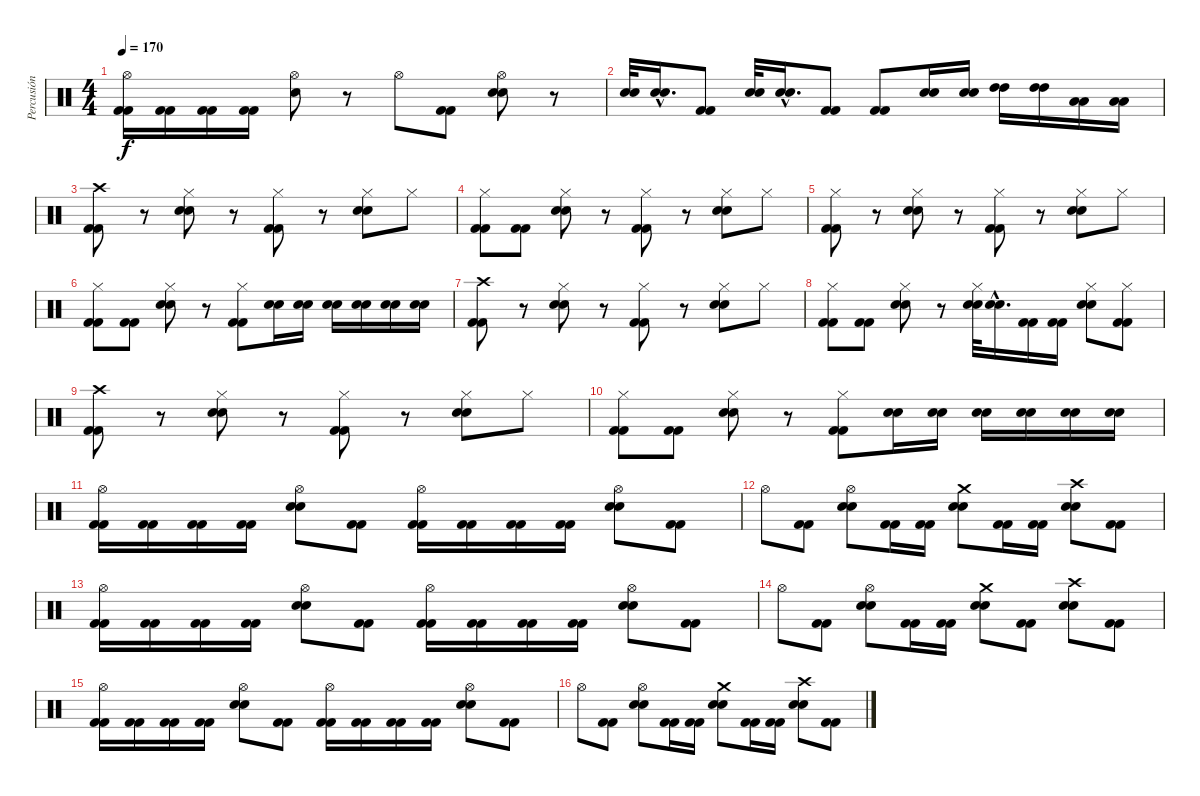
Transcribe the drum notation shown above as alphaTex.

\track ("Percusión" "Percusión") {instrument percussion}
\staff {score}
\articulation defaults
\ts (4 4)
\tempo 170
\clef neutral
\ks c
("Hi-Hat (open)" "Kick (hit) 2" "Kick (hit) 2").16{dy f} ("Kick (hit) 2" "Kick (hit) 2").16 ("Kick (hit) 2" "Kick (hit) 2").16 ("Kick (hit) 2" "Kick (hit) 2").16 ("Hi-Hat (open)" "Electric Snare (hit)").8 r.8 "Hi-Hat (open)".8 ("Kick (hit) 2" "Kick (hit) 2").8 ("Hi-Hat (open)" "Electric Snare (hit)" "Electric Snare (hit)").8 r.8 |
("Electric Snare (hit)" "Electric Snare (hit)").32 ("Electric Snare (hit)"{hac} "Electric Snare (hit)"{hac}).16{d} ("Kick (hit) 2" "Kick (hit) 2").8 ("Electric Snare (hit)" "Electric Snare (hit)").32 ("Electric Snare (hit)"{hac} "Electric Snare (hit)"{hac}).16{d} ("Kick (hit) 2" "Kick (hit) 2").8 ("Kick (hit) 2" "Kick (hit) 2").8 ("Electric Snare (hit)" "Electric Snare (hit)").16 ("Electric Snare (hit)" "Electric Snare (hit)").16 ("High Tom (hit)" "High Tom (hit)").16 ("High Tom (hit)" "High Tom (hit)").16 ("Low Tom (hit)" "Low Tom (hit)").16 ("Low Tom (hit)" "Low Tom (hit)").16 |
("Crash high (hit)" "Kick (hit) 2" "Kick (hit) 2").8 r.8 ("Hi-Hat (closed)" "Electric Snare (hit)" "Electric Snare (hit)").8 r.8 ("Hi-Hat (closed)" "Kick (hit) 2" "Kick (hit) 2").8 r.8 ("Hi-Hat (closed)" "Electric Snare (hit)" "Electric Snare (hit)").8 "Hi-Hat (closed)".8 |
("Hi-Hat (closed)" "Kick (hit) 2" "Kick (hit) 2").8 ("Kick (hit) 2" "Kick (hit) 2").8 ("Hi-Hat (closed)" "Electric Snare (hit)" "Electric Snare (hit)").8 r.8 ("Hi-Hat (closed)" "Kick (hit) 2" "Kick (hit) 2").8 r.8 ("Hi-Hat (closed)" "Electric Snare (hit)" "Electric Snare (hit)").8 "Hi-Hat (closed)".8 |
("Hi-Hat (closed)" "Kick (hit) 2" "Kick (hit) 2").8 r.8 ("Hi-Hat (closed)" "Electric Snare (hit)" "Electric Snare (hit)").8 r.8 ("Hi-Hat (closed)" "Kick (hit) 2" "Kick (hit) 2").8 r.8 ("Hi-Hat (closed)" "Electric Snare (hit)" "Electric Snare (hit)").8 "Hi-Hat (closed)".8 |
("Hi-Hat (closed)" "Kick (hit) 2" "Kick (hit) 2").8 ("Kick (hit) 2" "Kick (hit) 2").8 ("Hi-Hat (closed)" "Electric Snare (hit)" "Electric Snare (hit)").8 r.8 ("Hi-Hat (closed)" "Kick (hit) 2" "Kick (hit) 2").8 ("Electric Snare (hit)" "Electric Snare (hit)").16 ("Electric Snare (hit)" "Electric Snare (hit)").16 ("Electric Snare (hit)" "Electric Snare (hit)").16 ("Electric Snare (hit)" "Electric Snare (hit)").16 ("Electric Snare (hit)" "Electric Snare (hit)").16 ("Electric Snare (hit)" "Electric Snare (hit)").16 |
("Crash high (hit)" "Kick (hit) 2" "Kick (hit) 2").8 r.8 ("Hi-Hat (closed)" "Electric Snare (hit)" "Electric Snare (hit)").8 r.8 ("Hi-Hat (closed)" "Kick (hit) 2" "Kick (hit) 2").8 r.8 ("Hi-Hat (closed)" "Electric Snare (hit)" "Electric Snare (hit)").8 "Hi-Hat (closed)".8 |
("Hi-Hat (closed)" "Kick (hit) 2" "Kick (hit) 2").8 ("Kick (hit) 2" "Kick (hit) 2").8 ("Hi-Hat (closed)" "Electric Snare (hit)" "Electric Snare (hit)").8 r.8 ("Hi-Hat (closed)" "Electric Snare (hit)" "Electric Snare (hit)").32 ("Electric Snare (hit)"{hac} "Electric Snare (hit)"{hac}).16{d} ("Kick (hit) 2" "Kick (hit) 2").16 ("Kick (hit) 2" "Kick (hit) 2").16 ("Hi-Hat (closed)" "Electric Snare (hit)" "Electric Snare (hit)").8 ("Hi-Hat (closed)" "Kick (hit) 2" "Kick (hit) 2").8 |
("Crash high (hit)" "Kick (hit) 2" "Kick (hit) 2").8 r.8 ("Hi-Hat (closed)" "Electric Snare (hit)" "Electric Snare (hit)").8 r.8 ("Hi-Hat (closed)" "Kick (hit) 2" "Kick (hit) 2").8 r.8 ("Hi-Hat (closed)" "Electric Snare (hit)" "Electric Snare (hit)").8 "Hi-Hat (closed)".8 |
("Hi-Hat (closed)" "Kick (hit) 2" "Kick (hit) 2").8 ("Kick (hit) 2" "Kick (hit) 2").8 ("Hi-Hat (closed)" "Electric Snare (hit)" "Electric Snare (hit)").8 r.8 ("Hi-Hat (closed)" "Kick (hit) 2" "Kick (hit) 2").8 ("Electric Snare (hit)" "Electric Snare (hit)").16 ("Electric Snare (hit)" "Electric Snare (hit)").16 ("Electric Snare (hit)" "Electric Snare (hit)").16 ("Electric Snare (hit)" "Electric Snare (hit)").16 ("Electric Snare (hit)" "Electric Snare (hit)").16 ("Electric Snare (hit)" "Electric Snare (hit)").16 |
("Hi-Hat (open)" "Kick (hit) 2" "Kick (hit) 2").16 ("Kick (hit) 2" "Kick (hit) 2").16 ("Kick (hit) 2" "Kick (hit) 2").16 ("Kick (hit) 2" "Kick (hit) 2").16 ("Hi-Hat (open)" "Electric Snare (hit)" "Electric Snare (hit)").8 ("Kick (hit) 2" "Kick (hit) 2").8 ("Hi-Hat (open)" "Kick (hit) 2" "Kick (hit) 2").16 ("Kick (hit) 2" "Kick (hit) 2").16 ("Kick (hit) 2" "Kick (hit) 2").16 ("Kick (hit) 2" "Kick (hit) 2").16 ("Hi-Hat (open)" "Electric Snare (hit)" "Electric Snare (hit)").8 ("Kick (hit) 2" "Kick (hit) 2").8 |
"Hi-Hat (open)".8 ("Kick (hit) 2" "Kick (hit) 2").8 ("Hi-Hat (open)" "Electric Snare (hit)" "Electric Snare (hit)").8 ("Kick (hit) 2" "Kick (hit) 2").16 ("Kick (hit) 2" "Kick (hit) 2").16 ("Crash medium (hit)" "Electric Snare (hit)" "Electric Snare (hit)").8 ("Kick (hit) 2" "Kick (hit) 2").16 ("Kick (hit) 2" "Kick (hit) 2").16 ("Crash high (hit)" "Electric Snare (hit)" "Electric Snare (hit)").8 ("Kick (hit) 2" "Kick (hit) 2").8 |
("Hi-Hat (open)" "Kick (hit) 2" "Kick (hit) 2").16 ("Kick (hit) 2" "Kick (hit) 2").16 ("Kick (hit) 2" "Kick (hit) 2").16 ("Kick (hit) 2" "Kick (hit) 2").16 ("Hi-Hat (open)" "Electric Snare (hit)" "Electric Snare (hit)").8 ("Kick (hit) 2" "Kick (hit) 2").8 ("Hi-Hat (open)" "Kick (hit) 2" "Kick (hit) 2").16 ("Kick (hit) 2" "Kick (hit) 2").16 ("Kick (hit) 2" "Kick (hit) 2").16 ("Kick (hit) 2" "Kick (hit) 2").16 ("Hi-Hat (open)" "Electric Snare (hit)" "Electric Snare (hit)").8 ("Kick (hit) 2" "Kick (hit) 2").8 |
"Hi-Hat (open)".8 ("Kick (hit) 2" "Kick (hit) 2").8 ("Hi-Hat (open)" "Electric Snare (hit)" "Electric Snare (hit)").8 ("Kick (hit) 2" "Kick (hit) 2").16 ("Kick (hit) 2" "Kick (hit) 2").16 ("Crash medium (hit)" "Electric Snare (hit)" "Electric Snare (hit)").8 ("Kick (hit) 2" "Kick (hit) 2").8 ("Crash high (hit)" "Electric Snare (hit)" "Electric Snare (hit)").8 ("Kick (hit) 2" "Kick (hit) 2").8 |
("Hi-Hat (open)" "Kick (hit) 2" "Kick (hit) 2").16 ("Kick (hit) 2" "Kick (hit) 2").16 ("Kick (hit) 2" "Kick (hit) 2").16 ("Kick (hit) 2" "Kick (hit) 2").16 ("Hi-Hat (open)" "Electric Snare (hit)" "Electric Snare (hit)").8 ("Kick (hit) 2" "Kick (hit) 2").8 ("Hi-Hat (open)" "Kick (hit) 2" "Kick (hit) 2").16 ("Kick (hit) 2" "Kick (hit) 2").16 ("Kick (hit) 2" "Kick (hit) 2").16 ("Kick (hit) 2" "Kick (hit) 2").16 ("Hi-Hat (open)" "Electric Snare (hit)" "Electric Snare (hit)").8 ("Kick (hit) 2" "Kick (hit) 2").8 |
"Hi-Hat (open)".8 ("Kick (hit) 2" "Kick (hit) 2").8 ("Hi-Hat (open)" "Electric Snare (hit)" "Electric Snare (hit)").8 ("Kick (hit) 2" "Kick (hit) 2").16 ("Kick (hit) 2" "Kick (hit) 2").16 ("Crash medium (hit)" "Electric Snare (hit)" "Electric Snare (hit)").8 ("Kick (hit) 2" "Kick (hit) 2").16 ("Kick (hit) 2" "Kick (hit) 2").16 ("Crash high (hit)" "Electric Snare (hit)" "Electric Snare (hit)").8 ("Kick (hit) 2" "Kick (hit) 2").8
